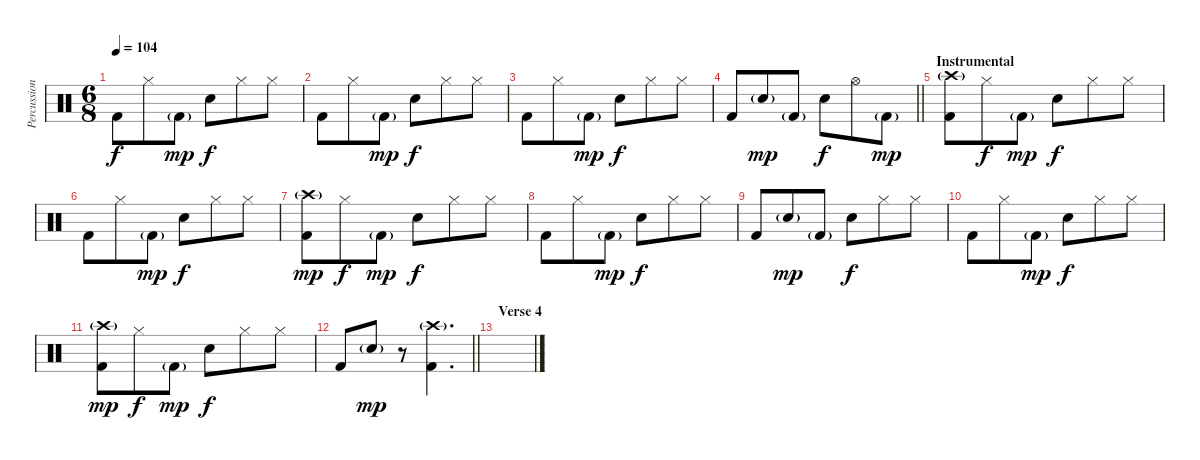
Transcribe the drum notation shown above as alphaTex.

\track ("Percussion" "Percussion") {instrument percussion}
\staff {score}
\articulation defaults
\ts (6 8)
\tempo 104
\clef neutral
\ks c "Kick (hit) 2".8{dy f} "Hi-Hat (closed)".8 "Kick (hit) 2"{g}.8{dy mp} "Snare (hit) 2".8{dy f} "Hi-Hat (closed)".8 "Hi-Hat (closed)".8
|
"Kick (hit) 2".8 "Hi-Hat (closed)".8 "Kick (hit) 2"{g}.8{dy mp} "Snare (hit) 2".8{dy f} "Hi-Hat (closed)".8 "Hi-Hat (closed)".8 |
"Kick (hit) 2".8 "Hi-Hat (closed)".8 "Kick (hit) 2"{g}.8{dy mp} "Snare (hit) 2".8{dy f} "Hi-Hat (closed)".8 "Hi-Hat (closed)".8 |
\barLineRight lightlight "Kick (hit) 2".8 "Snare (hit) 2"{g}.8{dy mp} "Kick (hit) 2"{g}.8 "Snare (hit) 2".8{dy f} "Hi-Hat (open)".8 "Kick (hit) 2"{g}.8{dy mp}
|
\section ("" "Instrumental")
("Crash high (hit)"{g} "Kick (hit) 2").8 "Hi-Hat (closed)".8{dy f} "Kick (hit) 2"{g}.8{dy mp} "Snare (hit) 2".8{dy f} "Hi-Hat (closed)".8 "Hi-Hat (closed)".8 |
"Kick (hit) 2".8 "Hi-Hat (closed)".8 "Kick (hit) 2"{g}.8{dy mp} "Snare (hit) 2".8{dy f} "Hi-Hat (closed)".8 "Hi-Hat (closed)".8 |
("Crash high (hit)"{g} "Kick (hit) 2").8{dy mp} "Hi-Hat (closed)".8{dy f} "Kick (hit) 2"{g}.8{dy mp} "Snare (hit) 2".8{dy f} "Hi-Hat (closed)".8 "Hi-Hat (closed)".8 |
"Kick (hit) 2".8 "Hi-Hat (closed)".8 "Kick (hit) 2"{g}.8{dy mp} "Snare (hit) 2".8{dy f} "Hi-Hat (closed)".8 "Hi-Hat (closed)".8 |
"Kick (hit) 2".8 "Snare (hit) 2"{g}.8{dy mp} "Kick (hit) 2"{g}.8 "Snare (hit) 2".8{dy f} "Hi-Hat (closed)".8 "Hi-Hat (closed)".8 |
"Kick (hit) 2".8 "Hi-Hat (closed)".8 "Kick (hit) 2"{g}.8{dy mp} "Snare (hit) 2".8{dy f} "Hi-Hat (closed)".8 "Hi-Hat (closed)".8 |
("Crash high (hit)"{g} "Kick (hit) 2").8{dy mp} "Hi-Hat (closed)".8{dy f} "Kick (hit) 2"{g}.8{dy mp} "Snare (hit) 2".8{dy f} "Hi-Hat (closed)".8 "Hi-Hat (closed)".8 |
\barLineRight lightlight "Kick (hit) 2".8 "Snare (hit) 2"{g}.8{dy mp}
r.8 ("Crash high (hit)"{g} "Kick (hit) 2").4{d} |
\section ("" "Verse 4")
